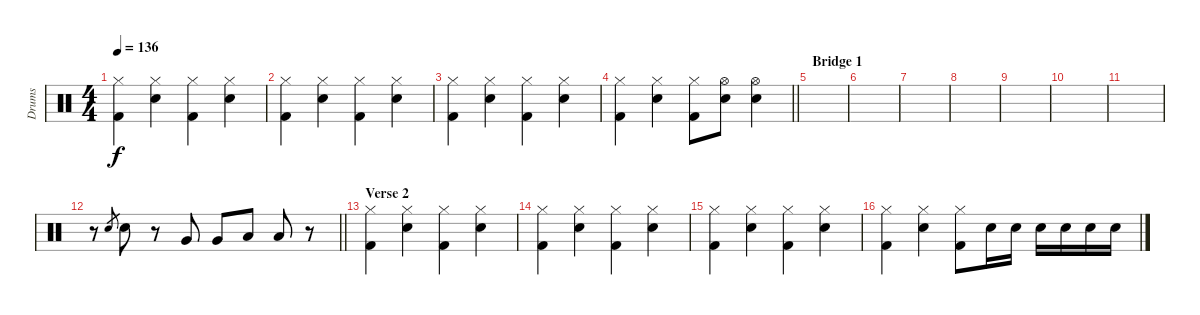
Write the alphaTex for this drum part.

\track ("Drums" "Drums") {instrument percussion}
\staff {score}
\articulation defaults
\ts (4 4)
\tempo 136
\clef neutral
\ks c
("Hi-Hat (closed)" "Kick (hit) 2").4{dy f} ("Hi-Hat (closed)" "Snare (hit) 2").4 ("Hi-Hat (closed)" "Kick (hit) 2").4 ("Hi-Hat (closed)" "Snare (hit) 2").4 |
("Hi-Hat (closed)" "Kick (hit) 2").4 ("Hi-Hat (closed)" "Snare (hit) 2").4 ("Hi-Hat (closed)" "Kick (hit) 2").4 ("Hi-Hat (closed)" "Snare (hit) 2").4 |
("Hi-Hat (closed)" "Kick (hit) 2").4 ("Hi-Hat (closed)" "Snare (hit) 2").4 ("Hi-Hat (closed)" "Kick (hit) 2").4 ("Hi-Hat (closed)" "Snare (hit) 2").4 |
\barLineRight lightlight
("Hi-Hat (closed)" "Kick (hit) 2").4 ("Hi-Hat (closed)" "Snare (hit) 2").4 ("Hi-Hat (closed)" "Kick (hit) 2").8 ("Hi-Hat (open)" "Snare (hit) 2").8 ("Hi-Hat (open)" "Snare (hit) 2").4 |
\section ("" "Bridge 1")
|
|
|
|
|
|
|
\barLineRight lightlight
r.8 "Snare (hit) 2".8{gr} "Snare (hit) 2".8 r.8 "Very Low Tom (hit)".8 "Very Low Tom (hit)".8 "Low Floor Tom (hit)".8 "Low Tom (hit)".8 r.8 |
\section ("" "Verse 2")
("Hi-Hat (closed)" "Kick (hit) 2").4 ("Hi-Hat (closed)" "Snare (hit) 2").4 ("Hi-Hat (closed)" "Kick (hit) 2").4 ("Hi-Hat (closed)" "Snare (hit) 2").4 |
("Hi-Hat (closed)" "Kick (hit) 2").4 ("Hi-Hat (closed)" "Snare (hit) 2").4 ("Hi-Hat (closed)" "Kick (hit) 2").4 ("Hi-Hat (closed)" "Snare (hit) 2").4 |
("Hi-Hat (closed)" "Kick (hit) 2").4 ("Hi-Hat (closed)" "Snare (hit) 2").4 ("Hi-Hat (closed)" "Kick (hit) 2").4 ("Hi-Hat (closed)" "Snare (hit) 2").4 |
("Hi-Hat (closed)" "Kick (hit) 2").4 ("Hi-Hat (closed)" "Snare (hit) 2").4 ("Hi-Hat (closed)" "Kick (hit) 2").8 "Snare (hit) 2".16 "Snare (hit) 2".16 "Snare (hit) 2".16 "Snare (hit) 2".16 "Snare (hit) 2".16 "Snare (hit) 2".16
